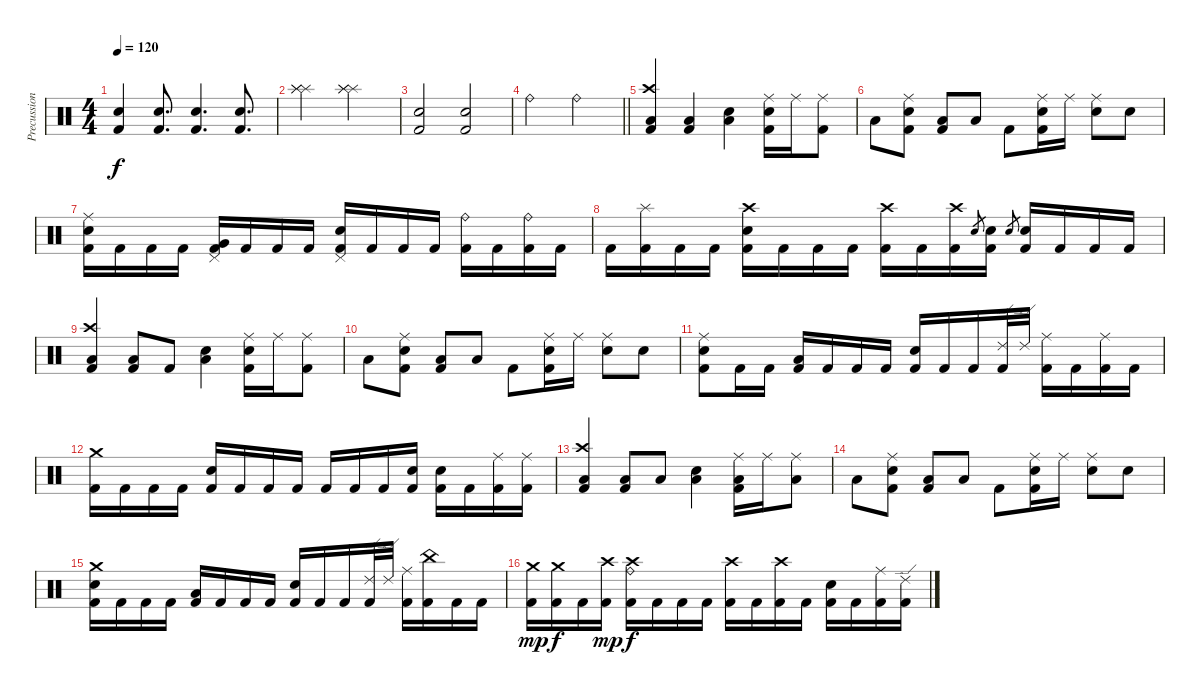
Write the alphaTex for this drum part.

\track ("Precussion" "Precussion") {instrument percussion}
\staff {score}
\articulation defaults
\ts (4 4)
\tempo 120
\clef neutral
\ks c
("Kick (hit) 2" "Electric Snare (hit)").4{dy f} ("Kick (hit) 2" "Electric Snare (hit)").8{d} ("Kick (hit) 2" "Electric Snare (hit)").4{d} ("Kick (hit) 2" "Electric Snare (hit)").8{d} |
("Splash (hit)" "Splash (hit)" "Splash (hit)").2 ("Splash (hit)" "Splash (hit)" "Splash (hit)").2 |
("Kick (hit) 2" "Electric Snare (hit)").2 ("Kick (hit) 2" "Electric Snare (hit)").2 |
\barLineRight lightlight "Ride (bell)".2 "Ride (bell)".2
|
("Crash high (hit)" "Low Floor Tom (hit)" "Kick (hit) 2").4 ("Low Floor Tom (hit)" "Kick (hit) 2").4 ("Electric Snare (hit)" "Low Floor Tom (hit)").4 ("Ride (middle)" "Electric Snare (hit)" "Kick (hit) 2").16 "Ride (middle)".16 ("Ride (middle)" "Kick (hit) 2").8 |
"Low Floor Tom (hit)".8 ("Ride (middle)" "Electric Snare (hit)" "Kick (hit) 2").8 ("Low Floor Tom (hit)" "Kick (hit) 2").8 "Low Floor Tom (hit)".8 "Kick (hit) 2".8 ("Ride (middle)" "Electric Snare (hit)" "Kick (hit) 2").16 "Ride (middle)".16 ("Ride (middle)" "Electric Snare (hit)").8 "Electric Snare (hit)".8 |
("Ride (middle)" "Electric Snare (hit)" "Kick (hit) 2").16 "Kick (hit) 2".16 "Kick (hit) 2".16 "Kick (hit) 2".16 ("Pedal Hi-Hat (hit)" "Very Low Tom (hit)" "Kick (hit) 2").16 "Kick (hit) 2".16 "Kick (hit) 2".16 "Kick (hit) 2".16 ("Pedal Hi-Hat (hit)" "Electric Snare (hit)" "Kick (hit) 2").16 "Kick (hit) 2".16 "Kick (hit) 2".16 "Kick (hit) 2".16 ("Ride (bell)" "Kick (hit) 2").16 "Kick (hit) 2".16 ("Ride (bell)" "Kick (hit) 2").16 "Kick (hit) 2".16 |
"Kick (hit) 2".16 ("Splash (hit)" "Kick (hit) 2").16 "Kick (hit) 2".16 "Kick (hit) 2".16 ("Electric Snare (hit)" "Crash high (hit)" "Kick (hit) 2").16 "Kick (hit) 2".16 "Kick (hit) 2".16 "Kick (hit) 2".16 ("Crash high (hit)" "Kick (hit) 2").16 "Kick (hit) 2".16 ("Crash high (hit)" "Kick (hit) 2").16 "Electric Snare (hit)".8{gr} ("Electric Snare (hit)" "Kick (hit) 2").16 "Electric Snare (hit)".8{gr} ("Electric Snare (hit)" "Kick (hit) 2").16 "Kick (hit) 2".16 "Kick (hit) 2".16 "Kick (hit) 2".16 |
("Crash high (hit)" "Low Floor Tom (hit)" "Kick (hit) 2").4 ("Low Floor Tom (hit)" "Kick (hit) 2").8 "Kick (hit) 2".8 ("Electric Snare (hit)" "Low Floor Tom (hit)").4 ("Ride (middle)" "Electric Snare (hit)" "Kick (hit) 2").16 "Ride (middle)".16 ("Ride (middle)" "Kick (hit) 2").8 |
"Low Floor Tom (hit)".8 ("Ride (middle)" "Electric Snare (hit)" "Kick (hit) 2").8 ("Low Floor Tom (hit)" "Kick (hit) 2").8 "Low Floor Tom (hit)".8 "Kick (hit) 2".8 ("Ride (middle)" "Electric Snare (hit)" "Kick (hit) 2").16 "Ride (middle)".16 ("Ride (middle)" "Electric Snare (hit)").8 "Electric Snare (hit)".8 |
("Ride (middle)" "Electric Snare (hit)" "Kick (hit) 2").8 "Kick (hit) 2".16 "Kick (hit) 2".16 ("Low Tom (hit)" "Kick (hit) 2").16 "Kick (hit) 2".16 "Kick (hit) 2".16 "Kick (hit) 2".16 ("Electric Snare (hit)" "Kick (hit) 2").16 "Kick (hit) 2".16 "Kick (hit) 2".16 ("Ride (edge) 2" "Kick (hit) 2").32 "Ride (edge) 2".32 ("Ride (middle)" "Kick (hit) 2").16 "Kick (hit) 2".16 ("Ride (middle)" "Kick (hit) 2").16 "Kick (hit) 2".16 |
("Crash medium (hit)" "Kick (hit) 2").16 "Kick (hit) 2".16 "Kick (hit) 2".16 "Kick (hit) 2".16 ("Electric Snare (hit)" "Kick (hit) 2").16 "Kick (hit) 2".16 "Kick (hit) 2".16 "Kick (hit) 2".16 "Kick (hit) 2".16 "Kick (hit) 2".16 "Kick (hit) 2".16 ("Electric Snare (hit)" "Kick (hit) 2").16 ("Electric Snare (hit)" "Kick (hit) 2").16 "Kick (hit) 2".16 ("Ride (middle)" "Kick (hit) 2").16 ("Ride (middle)" "Kick (hit) 2").16 |
("Crash high (hit)" "Low Floor Tom (hit)" "Kick (hit) 2").4 ("Low Floor Tom (hit)" "Kick (hit) 2").8 "Low Floor Tom (hit)".8 ("Electric Snare (hit)" "Low Floor Tom (hit)").4 ("Ride (middle)" "Low Floor Tom (hit)" "Kick (hit) 2").16 "Ride (middle)".16 ("Ride (middle)" "Low Floor Tom (hit)").8 |
"Low Floor Tom (hit)".8 ("Ride (middle)" "Electric Snare (hit)" "Kick (hit) 2").8 ("Low Floor Tom (hit)" "Kick (hit) 2").8 "Low Floor Tom (hit)".8 "Kick (hit) 2".8 ("Ride (middle)" "Electric Snare (hit)" "Kick (hit) 2").16 "Ride (middle)".16 ("Ride (middle)" "Electric Snare (hit)").8 "Electric Snare (hit)".8 |
("Crash medium (hit)" "Electric Snare (hit)" "Kick (hit) 2").16 "Kick (hit) 2".16 "Kick (hit) 2".16 "Kick (hit) 2".16 ("Low Tom (hit)" "Kick (hit) 2").16 "Kick (hit) 2".16 "Kick (hit) 2".16 "Kick (hit) 2".16 ("Electric Snare (hit)" "Kick (hit) 2").16 "Kick (hit) 2".16 "Kick (hit) 2".16 ("Ride (edge) 2" "Kick (hit) 2").32 "Ride (edge) 2".32 ("Ride (middle)" "Kick (hit) 2").16 ("China (hit)" "Kick (hit) 2").16 "Kick (hit) 2".16 "Kick (hit) 2".16 |
("Crash medium (hit)" "Kick (hit) 2").16{dy mp} ("Crash medium (hit)" "Kick (hit) 2").16{dy f} "Kick (hit) 2".16 ("Crash high (hit)" "Kick (hit) 2").16{dy mp} ("Crash high (hit)" "Ride (bell)" "Kick (hit) 2").16{dy f} "Kick (hit) 2".16 "Kick (hit) 2".16 "Kick (hit) 2".16 ("Crash high (hit)" "Kick (hit) 2").16 "Kick (hit) 2".16 ("Crash high (hit)" "Kick (hit) 2").16 "Kick (hit) 2".16 ("Electric Snare (hit)" "Kick (hit) 2").16 "Kick (hit) 2".16 ("Ride (middle)" "Kick (hit) 2").16 ("Ride (edge) 2" "Kick (hit) 2").16
